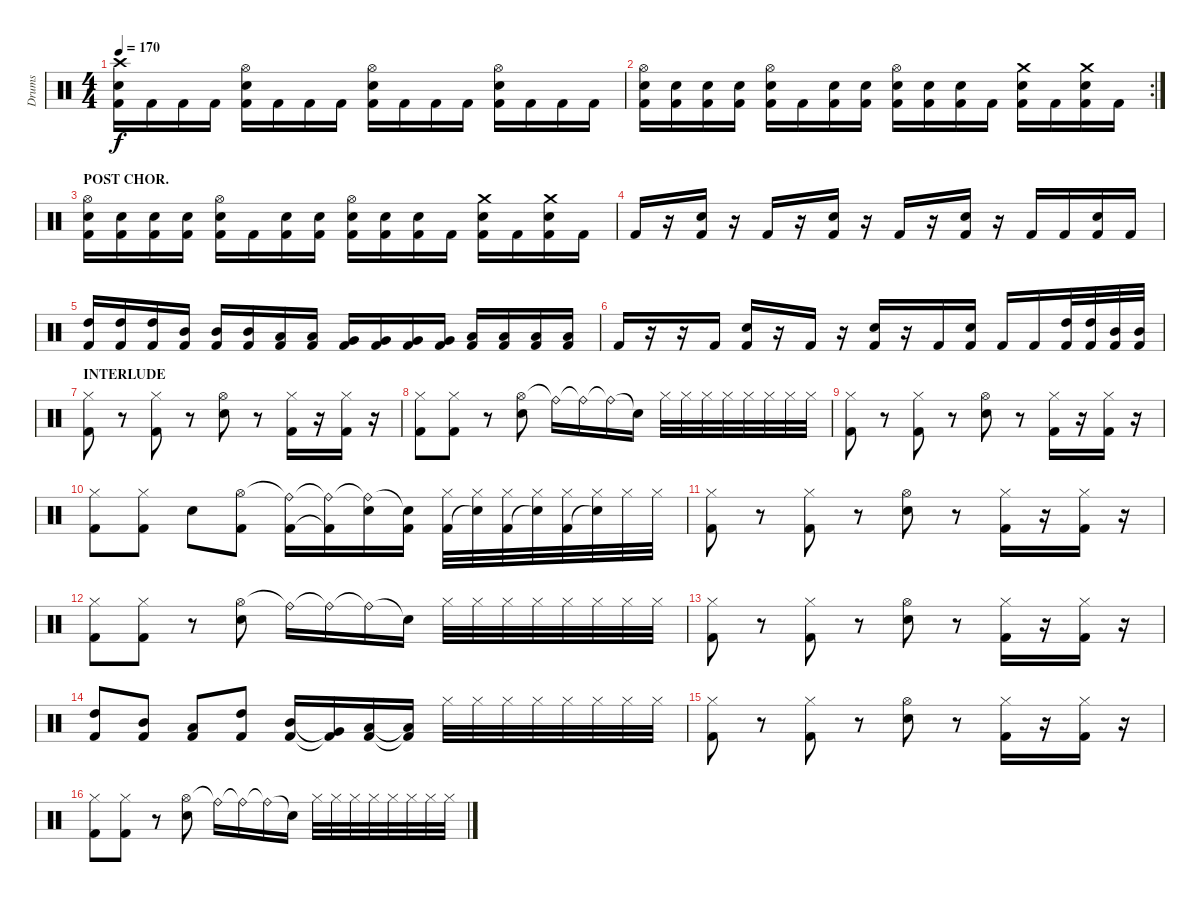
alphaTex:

\track ("Drums" "Drums") {instrument percussion}
\staff {score}
\articulation defaults
\ts (4 4)
\tempo 170
\clef neutral
\ks c
("Crash high (hit)" "Electric Snare (hit)" "Kick (hit) 2").16{dy f} "Kick (hit) 2".16 "Kick (hit) 2".16 "Kick (hit) 2".16 ("Hi-Hat (open)" "Electric Snare (hit)" "Kick (hit) 2").16 "Kick (hit) 2".16 "Kick (hit) 2".16 "Kick (hit) 2".16 ("Hi-Hat (open)" "Electric Snare (hit)" "Kick (hit) 2").16 "Kick (hit) 2".16 "Kick (hit) 2".16 "Kick (hit) 2".16 ("Hi-Hat (open)" "Electric Snare (hit)" "Kick (hit) 2").16 "Kick (hit) 2".16 "Kick (hit) 2".16 "Kick (hit) 2".16 |
\rc 2
("Hi-Hat (open)" "Electric Snare (hit)" "Kick (hit) 2").16 ("Electric Snare (hit)" "Kick (hit) 2").16 ("Electric Snare (hit)" "Kick (hit) 2").16 ("Electric Snare (hit)" "Kick (hit) 2").16 ("Hi-Hat (open)" "Electric Snare (hit)" "Kick (hit) 2").16 "Kick (hit) 2".16 ("Electric Snare (hit)" "Kick (hit) 2").16 ("Electric Snare (hit)" "Kick (hit) 2").16 ("Hi-Hat (open)" "Electric Snare (hit)" "Kick (hit) 2").16 ("Electric Snare (hit)" "Kick (hit) 2").16 ("Electric Snare (hit)" "Kick (hit) 2").16 "Kick (hit) 2".16 ("Crash medium (hit)" "Electric Snare (hit)" "Kick (hit) 2").16 "Kick (hit) 2".16 ("Crash medium (hit)" "Electric Snare (hit)" "Kick (hit) 2").16 "Kick (hit) 2".16 |
\section ("" "POST CHOR.")
("Hi-Hat (open)" "Electric Snare (hit)" "Kick (hit) 2").16 ("Electric Snare (hit)" "Kick (hit) 2").16 ("Electric Snare (hit)" "Kick (hit) 2").16 ("Electric Snare (hit)" "Kick (hit) 2").16 ("Hi-Hat (open)" "Electric Snare (hit)" "Kick (hit) 2").16 "Kick (hit) 2".16 ("Electric Snare (hit)" "Kick (hit) 2").16 ("Electric Snare (hit)" "Kick (hit) 2").16 ("Hi-Hat (open)" "Electric Snare (hit)" "Kick (hit) 2").16 ("Electric Snare (hit)" "Kick (hit) 2").16 ("Electric Snare (hit)" "Kick (hit) 2").16 "Kick (hit) 2".16 ("Crash medium (hit)" "Electric Snare (hit)" "Kick (hit) 2").16 "Kick (hit) 2".16 ("Crash medium (hit)" "Electric Snare (hit)" "Kick (hit) 2").16 "Kick (hit) 2".16 |
"Kick (hit) 2".16 r.16 ("Electric Snare (hit)" "Kick (hit) 2").16 r.16 "Kick (hit) 2".16 r.16 ("Electric Snare (hit)" "Kick (hit) 2").16 r.16 "Kick (hit) 2".16 r.16 ("Electric Snare (hit)" "Kick (hit) 2").16 r.16 "Kick (hit) 2".16 "Kick (hit) 2".16 ("Electric Snare (hit)" "Kick (hit) 2").16 "Kick (hit) 2".16 |
("High Tom (hit)" "Kick (hit) 2").16 ("High Tom (hit)" "Kick (hit) 2").16 ("High Tom (hit)" "Kick (hit) 2").16 ("Mid Tom (hit)" "Kick (hit) 2").16 ("Mid Tom (hit)" "Kick (hit) 2").16 ("Mid Tom (hit)" "Kick (hit) 2").16 ("Low Tom (hit)" "Kick (hit) 2").16 ("Low Tom (hit)" "Kick (hit) 2").16 ("Very Low Tom (hit)" "Kick (hit) 2").16 ("Very Low Tom (hit)" "Kick (hit) 2").16 ("Very Low Tom (hit)" "Kick (hit) 2").16 ("Very Low Tom (hit)" "Kick (hit) 2").16 ("Low Floor Tom (hit)" "Kick (hit) 2").16 ("Low Floor Tom (hit)" "Kick (hit) 2").16 ("Low Floor Tom (hit)" "Kick (hit) 2").16 ("Low Floor Tom (hit)" "Kick (hit) 2").16 |
"Kick (hit) 2".16 r.16 r.16 "Kick (hit) 2".16 ("Electric Snare (hit)" "Kick (hit) 2").16 r.16 "Kick (hit) 2".16 r.16 ("Electric Snare (hit)" "Kick (hit) 2").16 r.16 "Kick (hit) 2".16 ("Electric Snare (hit)" "Kick (hit) 2").16 "Kick (hit) 2".16 "Kick (hit) 2".16 ("High Tom (hit)" "Kick (hit) 2").32 ("High Tom (hit)" "Kick (hit) 2").32 ("Mid Tom (hit)" "Kick (hit) 2").32 ("Mid Tom (hit)" "Kick (hit) 2").32 |
\section ("" "INTERLUDE")
("Hi-Hat (closed)" "Kick (hit) 2").8 r.8 ("Hi-Hat (closed)" "Kick (hit) 2").8 r.8 ("Hi-Hat (open)" "Electric Snare (hit)").8 r.8 ("Hi-Hat (closed)" "Kick (hit) 2").16 r.16 ("Hi-Hat (closed)" "Kick (hit) 2").16 r.16 |
("Hi-Hat (closed)" "Kick (hit) 2").8 ("Hi-Hat (closed)" "Kick (hit) 2").8 r.8 ("Hi-Hat (open)" "Electric Snare (hit)").8 "Ride (bell)"{t}.16 "Ride (bell)"{t}.16 "Ride (bell)"{t}.16 "Snare (hit)"{t}.16 "Hi-Hat (closed)".32 "Hi-Hat (closed)".32 "Hi-Hat (closed)".32 "Hi-Hat (closed)".32 "Hi-Hat (closed)".32 "Hi-Hat (closed)".32 "Hi-Hat (closed)".32 "Hi-Hat (closed)".32 |
("Hi-Hat (closed)" "Kick (hit) 2").8 r.8 ("Hi-Hat (closed)" "Kick (hit) 2").8 r.8 ("Hi-Hat (open)" "Electric Snare (hit)").8 r.8 ("Hi-Hat (closed)" "Kick (hit) 2").16 r.16 ("Hi-Hat (closed)" "Kick (hit) 2").16 r.16 |
("Hi-Hat (closed)" "Kick (hit) 2").8 ("Hi-Hat (closed)" "Kick (hit) 2").8 "Electric Snare (hit)".8 ("Hi-Hat (open)" "Kick (hit) 2").8 ("Ride (bell)"{t} "Kick (hit) 2").16 ("Ride (bell)"{t} "Kick (hit) 2"{t}).16 ("Ride (bell)"{t} "Electric Snare (hit)").16 ("Snare (hit)"{t} "Kick (hit) 2").16 ("Hi-Hat (closed)" "Kick (hit) 2").32 ("Hi-Hat (closed)" "Snare (hit)"{t}).32 ("Hi-Hat (closed)" "Kick (hit) 2").32 ("Hi-Hat (closed)" "Snare (hit)"{t}).32 ("Hi-Hat (closed)" "Kick (hit) 2").32 ("Hi-Hat (closed)" "Snare (hit)"{t}).32 "Hi-Hat (closed)".32 "Hi-Hat (closed)".32 |
("Hi-Hat (closed)" "Kick (hit) 2").8 r.8 ("Hi-Hat (closed)" "Kick (hit) 2").8 r.8 ("Hi-Hat (open)" "Electric Snare (hit)").8 r.8 ("Hi-Hat (closed)" "Kick (hit) 2").16 r.16 ("Hi-Hat (closed)" "Kick (hit) 2").16 r.16 |
("Hi-Hat (closed)" "Kick (hit) 2").8 ("Hi-Hat (closed)" "Kick (hit) 2").8 r.8 ("Hi-Hat (open)" "Electric Snare (hit)").8 "Ride (bell)"{t}.16 "Ride (bell)"{t}.16 "Ride (bell)"{t}.16 "Snare (hit)"{t}.16 "Hi-Hat (closed)".32 "Hi-Hat (closed)".32 "Hi-Hat (closed)".32 "Hi-Hat (closed)".32 "Hi-Hat (closed)".32 "Hi-Hat (closed)".32 "Hi-Hat (closed)".32 "Hi-Hat (closed)".32 |
("Hi-Hat (closed)" "Kick (hit) 2").8 r.8 ("Hi-Hat (closed)" "Kick (hit) 2").8 r.8 ("Hi-Hat (open)" "Electric Snare (hit)").8 r.8 ("Hi-Hat (closed)" "Kick (hit) 2").16 r.16 ("Hi-Hat (closed)" "Kick (hit) 2").16 r.16 |
("High Tom (hit)" "Kick (hit) 2").8 ("Mid Tom (hit)" "Kick (hit) 2").8 ("Low Tom (hit)" "Kick (hit) 2").8 ("High Tom (hit)" "Kick (hit) 2").8 ("Mid Tom (hit)" "Kick (hit) 2").16 ("Very Low Tom (hit)"{t} "Kick (hit) 2"{t}).16 ("Low Tom (hit)" "Kick (hit) 2").16 ("Low Tom (hit)"{t} "Kick (hit) 2"{t}).16 "Hi-Hat (closed)".32 "Hi-Hat (closed)".32 "Hi-Hat (closed)".32 "Hi-Hat (closed)".32 "Hi-Hat (closed)".32 "Hi-Hat (closed)".32 "Hi-Hat (closed)".32 "Hi-Hat (closed)".32 |
("Hi-Hat (closed)" "Kick (hit) 2").8 r.8 ("Hi-Hat (closed)" "Kick (hit) 2").8 r.8 ("Hi-Hat (open)" "Electric Snare (hit)").8 r.8 ("Hi-Hat (closed)" "Kick (hit) 2").16 r.16 ("Hi-Hat (closed)" "Kick (hit) 2").16 r.16 |
("Hi-Hat (closed)" "Kick (hit) 2").8 ("Hi-Hat (closed)" "Kick (hit) 2").8 r.8 ("Hi-Hat (open)" "Electric Snare (hit)").8 "Ride (bell)"{t}.16 "Ride (bell)"{t}.16 "Ride (bell)"{t}.16 "Snare (hit)"{t}.16 "Hi-Hat (closed)".32 "Hi-Hat (closed)".32 "Hi-Hat (closed)".32 "Hi-Hat (closed)".32 "Hi-Hat (closed)".32 "Hi-Hat (closed)".32 "Hi-Hat (closed)".32 "Hi-Hat (closed)".32
